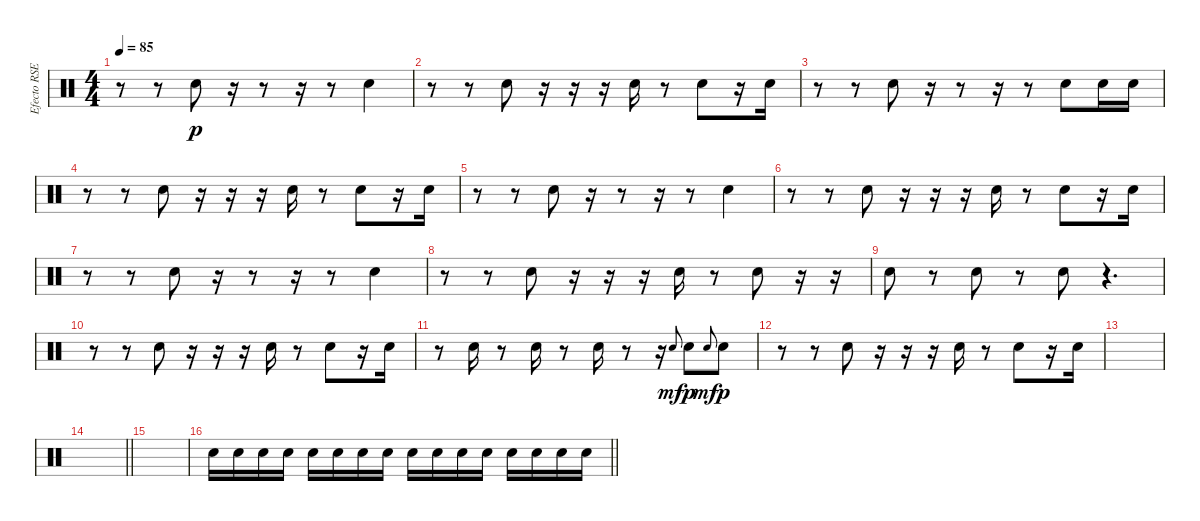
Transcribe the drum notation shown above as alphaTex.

\track ("Efecto RSE (GP5)" "Efecto RSE") {instrument percussion}
\staff {score}
\articulation defaults
\ts (4 4)
\tempo 85
\clef neutral
\ks c
r.8{dy p} r.8 "Electric Snare (hit)".8 r.16 r.8 r.16 r.8 "Electric Snare (hit)".4 |
r.8 r.8 "Electric Snare (hit)".8 r.16 r.16 r.16 "Electric Snare (hit)".16 r.8 "Electric Snare (hit)".8 r.16 "Electric Snare (hit)".16 |
r.8 r.8 "Electric Snare (hit)".8 r.16 r.8 r.16 r.8 "Electric Snare (hit)".8 "Electric Snare (hit)".16 "Electric Snare (hit)".16 |
r.8 r.8 "Electric Snare (hit)".8 r.16 r.16 r.16 "Electric Snare (hit)".16 r.8 "Electric Snare (hit)".8 r.16 "Electric Snare (hit)".16 |
r.8 r.8 "Electric Snare (hit)".8 r.16 r.8 r.16 r.8 "Electric Snare (hit)".4 |
r.8 r.8 "Electric Snare (hit)".8 r.16 r.16 r.16 "Electric Snare (hit)".16 r.8 "Electric Snare (hit)".8 r.16 "Electric Snare (hit)".16 |
r.8 r.8 "Electric Snare (hit)".8 r.16 r.8 r.16 r.8 "Electric Snare (hit)".4 |
r.8 r.8 "Electric Snare (hit)".8 r.16 r.16 r.16 "Electric Snare (hit)".16 r.8 "Electric Snare (hit)".8 r.16 r.16 |
"Electric Snare (hit)".8 r.8 "Electric Snare (hit)".8 r.8 "Electric Snare (hit)".8 r.4{d} |
r.8 r.8 "Electric Snare (hit)".8 r.16 r.16 r.16 "Electric Snare (hit)".16 r.8 "Electric Snare (hit)".8 r.16 "Electric Snare (hit)".16 |
r.8 "Electric Snare (hit)".16 r.8 "Electric Snare (hit)".16 r.8 "Electric Snare (hit)".16 r.8 r.16 "Electric Snare (hit)".8{gr onbeat dy mf} "Electric Snare (hit)".8{dy p} "Electric Snare (hit)".8{gr onbeat dy mf} "Electric Snare (hit)".8{dy p} |
r.8 r.8 "Electric Snare (hit)".8 r.16 r.16 r.16 "Electric Snare (hit)".16 r.8 "Electric Snare (hit)".8 r.16 "Electric Snare (hit)".16 |
|
\barLineRight lightlight
|
|
\barLineRight lightlight "Electric Snare (hit)".16{volume 16} "Electric Snare (hit)".16 "Electric Snare (hit)".16 "Electric Snare (hit)".16 "Electric Snare (hit)".16 "Electric Snare (hit)".16 "Electric Snare (hit)".16 "Electric Snare (hit)".16 "Electric Snare (hit)".16 "Electric Snare (hit)".16 "Electric Snare (hit)".16 "Electric Snare (hit)".16 "Electric Snare (hit)".16 "Electric Snare (hit)".16 "Electric Snare (hit)".16 "Electric Snare (hit)".16
